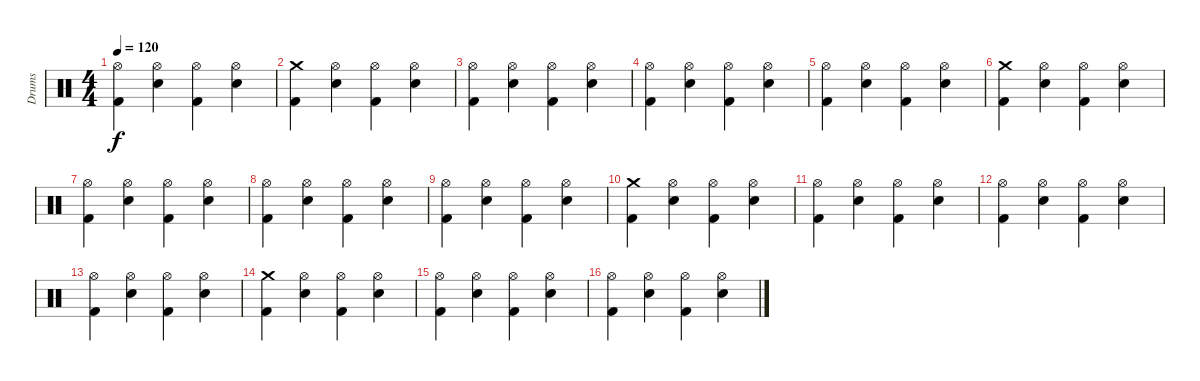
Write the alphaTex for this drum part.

\track ("Drums" "Drums") {instrument percussion}
\staff {score}
\articulation defaults
\ts (4 4)
\tempo 120
\clef neutral
\ks c
("Hi-Hat (open)" "Kick (hit) 2").4{dy f} ("Hi-Hat (open)" "Electric Snare (hit)").4 ("Hi-Hat (open)" "Kick (hit) 2").4 ("Hi-Hat (open)" "Electric Snare (hit)").4 |
("Crash medium (hit)" "Kick (hit) 2").4 ("Hi-Hat (open)" "Electric Snare (hit)").4 ("Hi-Hat (open)" "Kick (hit) 2").4 ("Hi-Hat (open)" "Electric Snare (hit)").4 |
("Hi-Hat (open)" "Kick (hit) 2").4 ("Hi-Hat (open)" "Electric Snare (hit)").4 ("Hi-Hat (open)" "Kick (hit) 2").4 ("Hi-Hat (open)" "Electric Snare (hit)").4 |
("Hi-Hat (open)" "Kick (hit) 2").4 ("Hi-Hat (open)" "Electric Snare (hit)").4 ("Hi-Hat (open)" "Kick (hit) 2").4 ("Hi-Hat (open)" "Electric Snare (hit)").4 |
("Hi-Hat (open)" "Kick (hit) 2").4 ("Hi-Hat (open)" "Electric Snare (hit)").4 ("Hi-Hat (open)" "Kick (hit) 2").4 ("Hi-Hat (open)" "Electric Snare (hit)").4 |
("Crash medium (hit)" "Kick (hit) 2").4 ("Hi-Hat (open)" "Electric Snare (hit)").4 ("Hi-Hat (open)" "Kick (hit) 2").4 ("Hi-Hat (open)" "Electric Snare (hit)").4 |
("Hi-Hat (open)" "Kick (hit) 2").4 ("Hi-Hat (open)" "Electric Snare (hit)").4 ("Hi-Hat (open)" "Kick (hit) 2").4 ("Hi-Hat (open)" "Electric Snare (hit)").4 |
("Hi-Hat (open)" "Kick (hit) 2").4 ("Hi-Hat (open)" "Electric Snare (hit)").4 ("Hi-Hat (open)" "Kick (hit) 2").4 ("Hi-Hat (open)" "Electric Snare (hit)").4 |
("Hi-Hat (open)" "Kick (hit) 2").4 ("Hi-Hat (open)" "Electric Snare (hit)").4 ("Hi-Hat (open)" "Kick (hit) 2").4 ("Hi-Hat (open)" "Electric Snare (hit)").4 |
("Crash medium (hit)" "Kick (hit) 2").4 ("Hi-Hat (open)" "Electric Snare (hit)").4 ("Hi-Hat (open)" "Kick (hit) 2").4 ("Hi-Hat (open)" "Electric Snare (hit)").4 |
("Hi-Hat (open)" "Kick (hit) 2").4 ("Hi-Hat (open)" "Electric Snare (hit)").4 ("Hi-Hat (open)" "Kick (hit) 2").4 ("Hi-Hat (open)" "Electric Snare (hit)").4 |
("Hi-Hat (open)" "Kick (hit) 2").4 ("Hi-Hat (open)" "Electric Snare (hit)").4 ("Hi-Hat (open)" "Kick (hit) 2").4 ("Hi-Hat (open)" "Electric Snare (hit)").4 |
("Hi-Hat (open)" "Kick (hit) 2").4 ("Hi-Hat (open)" "Electric Snare (hit)").4 ("Hi-Hat (open)" "Kick (hit) 2").4 ("Hi-Hat (open)" "Electric Snare (hit)").4 |
("Crash medium (hit)" "Kick (hit) 2").4 ("Hi-Hat (open)" "Electric Snare (hit)").4 ("Hi-Hat (open)" "Kick (hit) 2").4 ("Hi-Hat (open)" "Electric Snare (hit)").4 |
("Hi-Hat (open)" "Kick (hit) 2").4 ("Hi-Hat (open)" "Electric Snare (hit)").4 ("Hi-Hat (open)" "Kick (hit) 2").4 ("Hi-Hat (open)" "Electric Snare (hit)").4 |
("Hi-Hat (open)" "Kick (hit) 2").4 ("Hi-Hat (open)" "Electric Snare (hit)").4 ("Hi-Hat (open)" "Kick (hit) 2").4 ("Hi-Hat (open)" "Electric Snare (hit)").4
